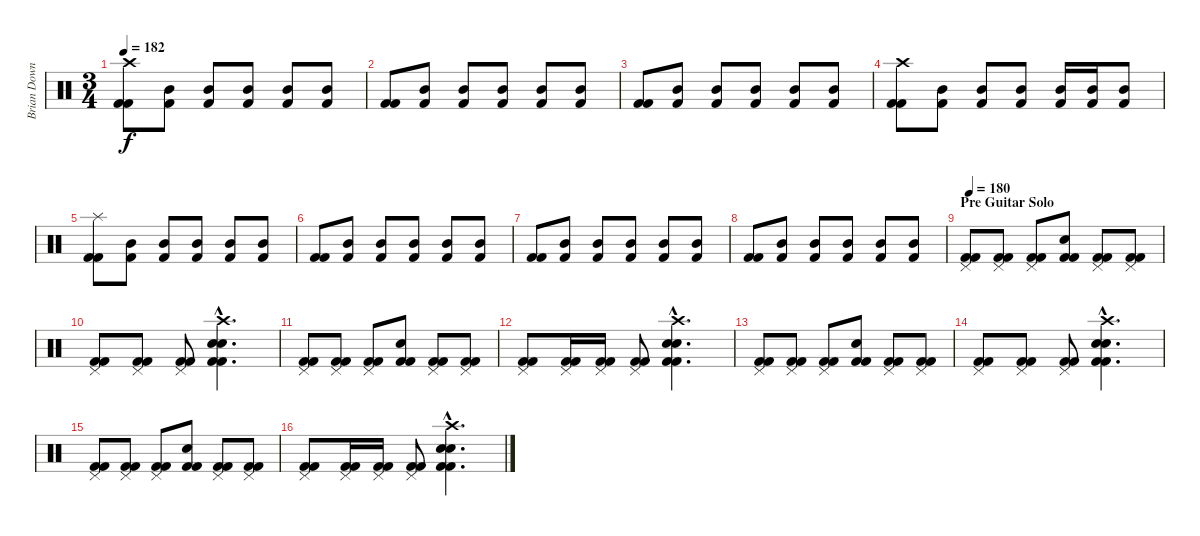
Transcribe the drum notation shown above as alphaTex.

\track ("Brian Downey" "Brian Down") {instrument percussion}
\staff {score}
\articulation defaults
\ts (3 4)
\tempo 182
\clef neutral
\ks c
("Crash high (hit)" "Kick (hit) 2" "Kick (hit) 2").8{dy f} ("Mid Tom (hit)" "Kick (hit) 2").8 ("Mid Tom (hit)" "Kick (hit) 2").8 ("Mid Tom (hit)" "Kick (hit) 2").8 ("Mid Tom (hit)" "Kick (hit) 2").8 ("Mid Tom (hit)" "Kick (hit) 2").8 |
("Kick (hit) 2" "Kick (hit) 2").8 ("Mid Tom (hit)" "Kick (hit) 2").8 ("Mid Tom (hit)" "Kick (hit) 2").8 ("Mid Tom (hit)" "Kick (hit) 2").8 ("Mid Tom (hit)" "Kick (hit) 2").8 ("Mid Tom (hit)" "Kick (hit) 2").8 |
("Kick (hit) 2" "Kick (hit) 2").8 ("Mid Tom (hit)" "Kick (hit) 2").8 ("Mid Tom (hit)" "Kick (hit) 2").8 ("Mid Tom (hit)" "Kick (hit) 2").8 ("Mid Tom (hit)" "Kick (hit) 2").8 ("Mid Tom (hit)" "Kick (hit) 2").8 |
("Crash high (hit)" "Kick (hit) 2" "Kick (hit) 2").8 ("Mid Tom (hit)" "Kick (hit) 2").8 ("Mid Tom (hit)" "Kick (hit) 2").8 ("Mid Tom (hit)" "Kick (hit) 2").8 ("Mid Tom (hit)" "Kick (hit) 2").16 ("Mid Tom (hit)" "Kick (hit) 2").16 ("Mid Tom (hit)" "Kick (hit) 2").8 |
("Splash (hit)" "Kick (hit) 2" "Kick (hit) 2").8 ("Mid Tom (hit)" "Kick (hit) 2").8 ("Mid Tom (hit)" "Kick (hit) 2").8 ("Mid Tom (hit)" "Kick (hit) 2").8 ("Mid Tom (hit)" "Kick (hit) 2").8 ("Mid Tom (hit)" "Kick (hit) 2").8 |
("Kick (hit) 2" "Kick (hit) 2").8 ("Mid Tom (hit)" "Kick (hit) 2").8 ("Mid Tom (hit)" "Kick (hit) 2").8 ("Mid Tom (hit)" "Kick (hit) 2").8 ("Mid Tom (hit)" "Kick (hit) 2").8 ("Mid Tom (hit)" "Kick (hit) 2").8 |
("Kick (hit) 2" "Kick (hit) 2").8 ("Mid Tom (hit)" "Kick (hit) 2").8 ("Mid Tom (hit)" "Kick (hit) 2").8 ("Mid Tom (hit)" "Kick (hit) 2").8 ("Mid Tom (hit)" "Kick (hit) 2").8 ("Mid Tom (hit)" "Kick (hit) 2").8 |
("Kick (hit) 2" "Kick (hit) 2").8 ("Mid Tom (hit)" "Kick (hit) 2").8 ("Mid Tom (hit)" "Kick (hit) 2").8 ("Mid Tom (hit)" "Kick (hit) 2").8 ("Mid Tom (hit)" "Kick (hit) 2").8 ("Mid Tom (hit)" "Kick (hit) 2").8 |
\section ("" "Pre Guitar Solo")
\tempo 180
("Pedal Hi-Hat (hit)" "Kick (hit) 2" "Kick (hit) 2").8 ("Pedal Hi-Hat (hit)" "Kick (hit) 2" "Kick (hit) 2").8 ("Pedal Hi-Hat (hit)" "Kick (hit) 2" "Kick (hit) 2").8 ("Snare (hit) 2" "Kick (hit) 2" "Kick (hit) 2").8 ("Pedal Hi-Hat (hit)" "Kick (hit) 2" "Kick (hit) 2").8 ("Pedal Hi-Hat (hit)" "Kick (hit) 2" "Kick (hit) 2").8 |
("Pedal Hi-Hat (hit)" "Kick (hit) 2" "Kick (hit) 2").8 ("Pedal Hi-Hat (hit)" "Kick (hit) 2" "Kick (hit) 2").8 ("Pedal Hi-Hat (hit)" "Kick (hit) 2" "Kick (hit) 2").8 ("Crash high (hit)"{hac} "Electric Snare (hit)"{hac} "Snare (hit) 2"{hac} "Kick (hit) 2"{hac} "Kick (hit) 2"{hac}).4{d} |
("Pedal Hi-Hat (hit)" "Kick (hit) 2" "Kick (hit) 2").8 ("Pedal Hi-Hat (hit)" "Kick (hit) 2" "Kick (hit) 2").8 ("Pedal Hi-Hat (hit)" "Kick (hit) 2" "Kick (hit) 2").8 ("Snare (hit) 2" "Kick (hit) 2" "Kick (hit) 2").8 ("Pedal Hi-Hat (hit)" "Kick (hit) 2" "Kick (hit) 2").8 ("Pedal Hi-Hat (hit)" "Kick (hit) 2" "Kick (hit) 2").8 |
("Pedal Hi-Hat (hit)" "Kick (hit) 2" "Kick (hit) 2").8 ("Pedal Hi-Hat (hit)" "Kick (hit) 2" "Kick (hit) 2").16 ("Pedal Hi-Hat (hit)" "Kick (hit) 2" "Kick (hit) 2").16 ("Pedal Hi-Hat (hit)" "Kick (hit) 2" "Kick (hit) 2").8 ("Crash high (hit)"{hac} "Electric Snare (hit)"{hac} "Snare (hit) 2"{hac} "Kick (hit) 2"{hac} "Kick (hit) 2"{hac}).4{d} |
("Pedal Hi-Hat (hit)" "Kick (hit) 2" "Kick (hit) 2").8 ("Pedal Hi-Hat (hit)" "Kick (hit) 2" "Kick (hit) 2").8 ("Pedal Hi-Hat (hit)" "Kick (hit) 2" "Kick (hit) 2").8 ("Snare (hit) 2" "Kick (hit) 2" "Kick (hit) 2").8 ("Pedal Hi-Hat (hit)" "Kick (hit) 2" "Kick (hit) 2").8 ("Pedal Hi-Hat (hit)" "Kick (hit) 2" "Kick (hit) 2").8 |
("Pedal Hi-Hat (hit)" "Kick (hit) 2" "Kick (hit) 2").8 ("Pedal Hi-Hat (hit)" "Kick (hit) 2" "Kick (hit) 2").8 ("Pedal Hi-Hat (hit)" "Kick (hit) 2" "Kick (hit) 2").8 ("Crash high (hit)"{hac} "Electric Snare (hit)"{hac} "Snare (hit) 2"{hac} "Kick (hit) 2"{hac} "Kick (hit) 2"{hac}).4{d} |
("Pedal Hi-Hat (hit)" "Kick (hit) 2" "Kick (hit) 2").8 ("Pedal Hi-Hat (hit)" "Kick (hit) 2" "Kick (hit) 2").8 ("Pedal Hi-Hat (hit)" "Kick (hit) 2" "Kick (hit) 2").8 ("Snare (hit) 2" "Kick (hit) 2" "Kick (hit) 2").8 ("Pedal Hi-Hat (hit)" "Kick (hit) 2" "Kick (hit) 2").8 ("Pedal Hi-Hat (hit)" "Kick (hit) 2" "Kick (hit) 2").8 |
("Pedal Hi-Hat (hit)" "Kick (hit) 2" "Kick (hit) 2").8 ("Pedal Hi-Hat (hit)" "Kick (hit) 2" "Kick (hit) 2").16 ("Pedal Hi-Hat (hit)" "Kick (hit) 2" "Kick (hit) 2").16 ("Pedal Hi-Hat (hit)" "Kick (hit) 2" "Kick (hit) 2").8 ("Crash high (hit)"{hac} "Electric Snare (hit)"{hac} "Snare (hit) 2"{hac} "Kick (hit) 2"{hac} "Kick (hit) 2"{hac}).4{d}
